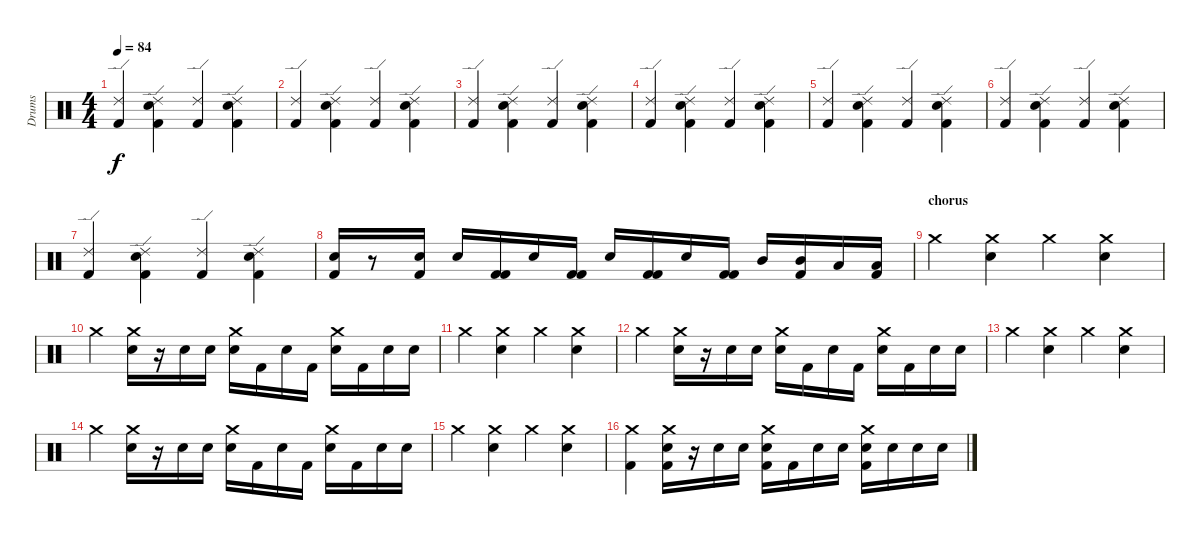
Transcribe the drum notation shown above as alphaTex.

\track ("Drums" "Drums") {instrument percussion}
\staff {score}
\articulation defaults
\ts (4 4)
\tempo 84
\clef neutral
\ks c
("Ride (edge) 2" "Kick (hit) 2").4{dy f} ("Ride (edge) 2" "Electric Snare (hit)" "Kick (hit) 2").4 ("Ride (edge) 2" "Kick (hit) 2").4 ("Ride (edge) 2" "Electric Snare (hit)" "Kick (hit) 2").4 |
("Ride (edge) 2" "Kick (hit) 2").4 ("Ride (edge) 2" "Electric Snare (hit)" "Kick (hit) 2").4 ("Ride (edge) 2" "Kick (hit) 2").4 ("Ride (edge) 2" "Electric Snare (hit)" "Kick (hit) 2").4 |
("Ride (edge) 2" "Kick (hit) 2").4 ("Ride (edge) 2" "Electric Snare (hit)" "Kick (hit) 2").4 ("Ride (edge) 2" "Kick (hit) 2").4 ("Ride (edge) 2" "Electric Snare (hit)" "Kick (hit) 2").4 |
("Ride (edge) 2" "Kick (hit) 2").4 ("Ride (edge) 2" "Electric Snare (hit)" "Kick (hit) 2").4 ("Ride (edge) 2" "Kick (hit) 2").4 ("Ride (edge) 2" "Electric Snare (hit)" "Kick (hit) 2").4 |
("Ride (edge) 2" "Kick (hit) 2").4 ("Ride (edge) 2" "Electric Snare (hit)" "Kick (hit) 2").4 ("Ride (edge) 2" "Kick (hit) 2").4 ("Ride (edge) 2" "Electric Snare (hit)" "Kick (hit) 2").4 |
("Ride (edge) 2" "Kick (hit) 2").4 ("Ride (edge) 2" "Electric Snare (hit)" "Kick (hit) 2").4 ("Ride (edge) 2" "Kick (hit) 2").4 ("Ride (edge) 2" "Electric Snare (hit)" "Kick (hit) 2").4 |
("Ride (edge) 2" "Kick (hit) 2").4 ("Ride (edge) 2" "Electric Snare (hit)" "Kick (hit) 2").4 ("Ride (edge) 2" "Kick (hit) 2").4 ("Ride (edge) 2" "Electric Snare (hit)" "Kick (hit) 2").4 |
("Electric Snare (hit)" "Kick (hit) 2").16 r.8 ("Electric Snare (hit)" "Kick (hit) 2").16 "Electric Snare (hit)".16 ("Kick (hit) 2" "Kick (hit) 2").16 "Electric Snare (hit)".16 ("Kick (hit) 2" "Kick (hit) 2").16 "Electric Snare (hit)".16 ("Kick (hit) 2" "Kick (hit) 2").16 "Electric Snare (hit)".16 ("Kick (hit) 2" "Kick (hit) 2").16 "Mid Tom (hit)".16 ("Mid Tom (hit)" "Kick (hit) 2").16 "Low Tom (hit)".16 ("Low Tom (hit)" "Kick (hit) 2").16 |
\section ("" "chorus")
"Crash medium (hit)".4 ("Crash medium (hit)" "Electric Snare (hit)").4 "Crash medium (hit)".4 ("Crash medium (hit)" "Electric Snare (hit)").4 |
"Crash medium (hit)".4 ("Crash medium (hit)" "Electric Snare (hit)").16 r.16 "Electric Snare (hit)".16 "Electric Snare (hit)".16 ("Crash medium (hit)" "Electric Snare (hit)").16 "Kick (hit) 2".16 "Electric Snare (hit)".16 "Kick (hit) 2".16 ("Crash medium (hit)" "Electric Snare (hit)").16 "Kick (hit) 2".16 "Electric Snare (hit)".16 "Electric Snare (hit)".16 |
"Crash medium (hit)".4 ("Crash medium (hit)" "Electric Snare (hit)").4 "Crash medium (hit)".4 ("Crash medium (hit)" "Electric Snare (hit)").4 |
"Crash medium (hit)".4 ("Crash medium (hit)" "Electric Snare (hit)").16 r.16 "Electric Snare (hit)".16 "Electric Snare (hit)".16 ("Crash medium (hit)" "Electric Snare (hit)").16 "Kick (hit) 2".16 "Electric Snare (hit)".16 "Kick (hit) 2".16 ("Crash medium (hit)" "Electric Snare (hit)").16 "Kick (hit) 2".16 "Electric Snare (hit)".16 "Electric Snare (hit)".16 |
"Crash medium (hit)".4 ("Crash medium (hit)" "Electric Snare (hit)").4 "Crash medium (hit)".4 ("Crash medium (hit)" "Electric Snare (hit)").4 |
"Crash medium (hit)".4 ("Crash medium (hit)" "Electric Snare (hit)").16 r.16 "Electric Snare (hit)".16 "Electric Snare (hit)".16 ("Crash medium (hit)" "Electric Snare (hit)").16 "Kick (hit) 2".16 "Electric Snare (hit)".16 "Kick (hit) 2".16 ("Crash medium (hit)" "Electric Snare (hit)").16 "Kick (hit) 2".16 "Electric Snare (hit)".16 "Electric Snare (hit)".16 |
"Crash medium (hit)".4 ("Crash medium (hit)" "Electric Snare (hit)").4 "Crash medium (hit)".4 ("Crash medium (hit)" "Electric Snare (hit)").4 |
("Crash medium (hit)" "Kick (hit) 2").4 ("Crash medium (hit)" "Electric Snare (hit)" "Kick (hit) 2").16 r.16 "Electric Snare (hit)".16 "Electric Snare (hit)".16 ("Crash medium (hit)" "Electric Snare (hit)" "Kick (hit) 2").16 "Kick (hit) 2".16 "Electric Snare (hit)".16 "Electric Snare (hit)".16 ("Crash medium (hit)" "Electric Snare (hit)" "Kick (hit) 2").16 "Electric Snare (hit)".16 "Electric Snare (hit)".16 "Electric Snare (hit)".16
